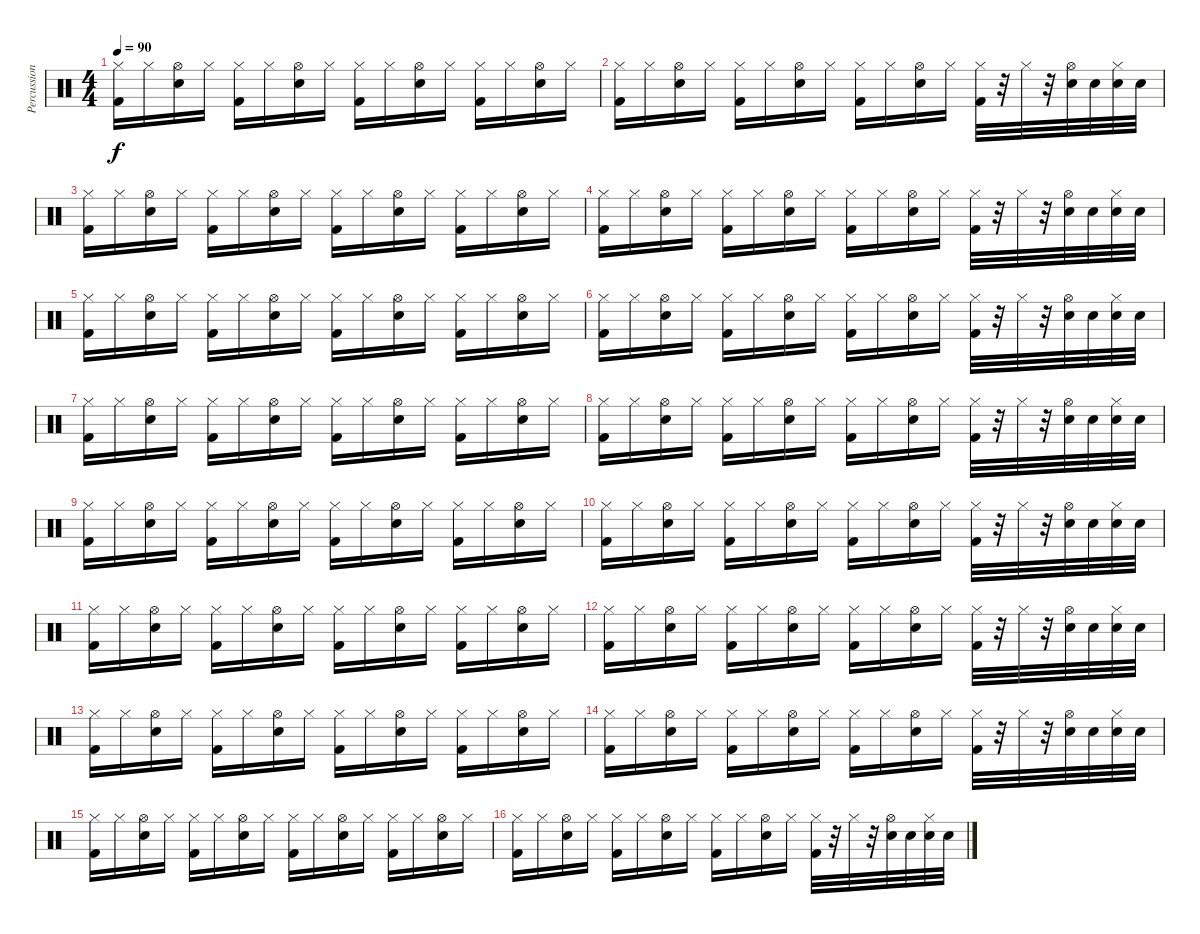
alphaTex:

\track ("Percussions" "Percussion") {instrument percussion}
\staff {score}
\articulation defaults
\ts (4 4)
\tempo 90
\clef neutral
\ks c
("Hi-Hat (closed)" "Kick (hit) 2").16{dy f} "Hi-Hat (closed)".16 ("Hi-Hat (open)" "Snare (hit) 2").16 "Hi-Hat (closed)".16 ("Hi-Hat (closed)" "Kick (hit) 2").16 "Hi-Hat (closed)".16 ("Hi-Hat (open)" "Snare (hit) 2").16 "Hi-Hat (closed)".16 ("Hi-Hat (closed)" "Kick (hit) 2").16 "Hi-Hat (closed)".16 ("Hi-Hat (open)" "Snare (hit) 2").16 "Hi-Hat (closed)".16 ("Hi-Hat (closed)" "Kick (hit) 2").16 "Hi-Hat (closed)".16 ("Hi-Hat (open)" "Snare (hit) 2").16 "Hi-Hat (closed)".16 |
("Hi-Hat (closed)" "Kick (hit) 2").16 "Hi-Hat (closed)".16 ("Hi-Hat (open)" "Snare (hit) 2").16 "Hi-Hat (closed)".16 ("Hi-Hat (closed)" "Kick (hit) 2").16 "Hi-Hat (closed)".16 ("Hi-Hat (open)" "Snare (hit) 2").16 "Hi-Hat (closed)".16 ("Hi-Hat (closed)" "Kick (hit) 2").16 "Hi-Hat (closed)".16 ("Hi-Hat (open)" "Snare (hit) 2").16 "Hi-Hat (closed)".16 ("Hi-Hat (closed)" "Kick (hit) 2").32 r.32 "Hi-Hat (closed)".32 r.32 ("Hi-Hat (open)" "Snare (hit) 2").32 "Snare (hit) 2".32 ("Hi-Hat (closed)" "Snare (hit) 2").32 "Snare (hit) 2".32 |
("Hi-Hat (closed)" "Kick (hit) 2").16 "Hi-Hat (closed)".16 ("Hi-Hat (open)" "Snare (hit) 2").16 "Hi-Hat (closed)".16 ("Hi-Hat (closed)" "Kick (hit) 2").16 "Hi-Hat (closed)".16 ("Hi-Hat (open)" "Snare (hit) 2").16 "Hi-Hat (closed)".16 ("Hi-Hat (closed)" "Kick (hit) 2").16 "Hi-Hat (closed)".16 ("Hi-Hat (open)" "Snare (hit) 2").16 "Hi-Hat (closed)".16 ("Hi-Hat (closed)" "Kick (hit) 2").16 "Hi-Hat (closed)".16 ("Hi-Hat (open)" "Snare (hit) 2").16 "Hi-Hat (closed)".16 |
("Hi-Hat (closed)" "Kick (hit) 2").16 "Hi-Hat (closed)".16 ("Hi-Hat (open)" "Snare (hit) 2").16 "Hi-Hat (closed)".16 ("Hi-Hat (closed)" "Kick (hit) 2").16 "Hi-Hat (closed)".16 ("Hi-Hat (open)" "Snare (hit) 2").16 "Hi-Hat (closed)".16 ("Hi-Hat (closed)" "Kick (hit) 2").16 "Hi-Hat (closed)".16 ("Hi-Hat (open)" "Snare (hit) 2").16 "Hi-Hat (closed)".16 ("Hi-Hat (closed)" "Kick (hit) 2").32 r.32 "Hi-Hat (closed)".32 r.32 ("Hi-Hat (open)" "Snare (hit) 2").32 "Snare (hit) 2".32 ("Hi-Hat (closed)" "Snare (hit) 2").32 "Snare (hit) 2".32 |
("Hi-Hat (closed)" "Kick (hit) 2").16 "Hi-Hat (closed)".16 ("Hi-Hat (open)" "Snare (hit) 2").16 "Hi-Hat (closed)".16 ("Hi-Hat (closed)" "Kick (hit) 2").16 "Hi-Hat (closed)".16 ("Hi-Hat (open)" "Snare (hit) 2").16 "Hi-Hat (closed)".16 ("Hi-Hat (closed)" "Kick (hit) 2").16 "Hi-Hat (closed)".16 ("Hi-Hat (open)" "Snare (hit) 2").16 "Hi-Hat (closed)".16 ("Hi-Hat (closed)" "Kick (hit) 2").16 "Hi-Hat (closed)".16 ("Hi-Hat (open)" "Snare (hit) 2").16 "Hi-Hat (closed)".16 |
("Hi-Hat (closed)" "Kick (hit) 2").16 "Hi-Hat (closed)".16 ("Hi-Hat (open)" "Snare (hit) 2").16 "Hi-Hat (closed)".16 ("Hi-Hat (closed)" "Kick (hit) 2").16 "Hi-Hat (closed)".16 ("Hi-Hat (open)" "Snare (hit) 2").16 "Hi-Hat (closed)".16 ("Hi-Hat (closed)" "Kick (hit) 2").16 "Hi-Hat (closed)".16 ("Hi-Hat (open)" "Snare (hit) 2").16 "Hi-Hat (closed)".16 ("Hi-Hat (closed)" "Kick (hit) 2").32 r.32 "Hi-Hat (closed)".32 r.32 ("Hi-Hat (open)" "Snare (hit) 2").32 "Snare (hit) 2".32 ("Hi-Hat (closed)" "Snare (hit) 2").32 "Snare (hit) 2".32 |
("Hi-Hat (closed)" "Kick (hit) 2").16 "Hi-Hat (closed)".16 ("Hi-Hat (open)" "Snare (hit) 2").16 "Hi-Hat (closed)".16 ("Hi-Hat (closed)" "Kick (hit) 2").16 "Hi-Hat (closed)".16 ("Hi-Hat (open)" "Snare (hit) 2").16 "Hi-Hat (closed)".16 ("Hi-Hat (closed)" "Kick (hit) 2").16 "Hi-Hat (closed)".16 ("Hi-Hat (open)" "Snare (hit) 2").16 "Hi-Hat (closed)".16 ("Hi-Hat (closed)" "Kick (hit) 2").16 "Hi-Hat (closed)".16 ("Hi-Hat (open)" "Snare (hit) 2").16 "Hi-Hat (closed)".16 |
("Hi-Hat (closed)" "Kick (hit) 2").16 "Hi-Hat (closed)".16 ("Hi-Hat (open)" "Snare (hit) 2").16 "Hi-Hat (closed)".16 ("Hi-Hat (closed)" "Kick (hit) 2").16 "Hi-Hat (closed)".16 ("Hi-Hat (open)" "Snare (hit) 2").16 "Hi-Hat (closed)".16 ("Hi-Hat (closed)" "Kick (hit) 2").16 "Hi-Hat (closed)".16 ("Hi-Hat (open)" "Snare (hit) 2").16 "Hi-Hat (closed)".16 ("Hi-Hat (closed)" "Kick (hit) 2").32 r.32 "Hi-Hat (closed)".32 r.32 ("Hi-Hat (open)" "Snare (hit) 2").32 "Snare (hit) 2".32 ("Hi-Hat (closed)" "Snare (hit) 2").32 "Snare (hit) 2".32 |
("Hi-Hat (closed)" "Kick (hit) 2").16 "Hi-Hat (closed)".16 ("Hi-Hat (open)" "Snare (hit) 2").16 "Hi-Hat (closed)".16 ("Hi-Hat (closed)" "Kick (hit) 2").16 "Hi-Hat (closed)".16 ("Hi-Hat (open)" "Snare (hit) 2").16 "Hi-Hat (closed)".16 ("Hi-Hat (closed)" "Kick (hit) 2").16 "Hi-Hat (closed)".16 ("Hi-Hat (open)" "Snare (hit) 2").16 "Hi-Hat (closed)".16 ("Hi-Hat (closed)" "Kick (hit) 2").16 "Hi-Hat (closed)".16 ("Hi-Hat (open)" "Snare (hit) 2").16 "Hi-Hat (closed)".16 |
("Hi-Hat (closed)" "Kick (hit) 2").16 "Hi-Hat (closed)".16 ("Hi-Hat (open)" "Snare (hit) 2").16 "Hi-Hat (closed)".16 ("Hi-Hat (closed)" "Kick (hit) 2").16 "Hi-Hat (closed)".16 ("Hi-Hat (open)" "Snare (hit) 2").16 "Hi-Hat (closed)".16 ("Hi-Hat (closed)" "Kick (hit) 2").16 "Hi-Hat (closed)".16 ("Hi-Hat (open)" "Snare (hit) 2").16 "Hi-Hat (closed)".16 ("Hi-Hat (closed)" "Kick (hit) 2").32 r.32 "Hi-Hat (closed)".32 r.32 ("Hi-Hat (open)" "Snare (hit) 2").32 "Snare (hit) 2".32 ("Hi-Hat (closed)" "Snare (hit) 2").32 "Snare (hit) 2".32 |
("Hi-Hat (closed)" "Kick (hit) 2").16 "Hi-Hat (closed)".16 ("Hi-Hat (open)" "Snare (hit) 2").16 "Hi-Hat (closed)".16 ("Hi-Hat (closed)" "Kick (hit) 2").16 "Hi-Hat (closed)".16 ("Hi-Hat (open)" "Snare (hit) 2").16 "Hi-Hat (closed)".16 ("Hi-Hat (closed)" "Kick (hit) 2").16 "Hi-Hat (closed)".16 ("Hi-Hat (open)" "Snare (hit) 2").16 "Hi-Hat (closed)".16 ("Hi-Hat (closed)" "Kick (hit) 2").16 "Hi-Hat (closed)".16 ("Hi-Hat (open)" "Snare (hit) 2").16 "Hi-Hat (closed)".16 |
("Hi-Hat (closed)" "Kick (hit) 2").16 "Hi-Hat (closed)".16 ("Hi-Hat (open)" "Snare (hit) 2").16 "Hi-Hat (closed)".16 ("Hi-Hat (closed)" "Kick (hit) 2").16 "Hi-Hat (closed)".16 ("Hi-Hat (open)" "Snare (hit) 2").16 "Hi-Hat (closed)".16 ("Hi-Hat (closed)" "Kick (hit) 2").16 "Hi-Hat (closed)".16 ("Hi-Hat (open)" "Snare (hit) 2").16 "Hi-Hat (closed)".16 ("Hi-Hat (closed)" "Kick (hit) 2").32 r.32 "Hi-Hat (closed)".32 r.32 ("Hi-Hat (open)" "Snare (hit) 2").32 "Snare (hit) 2".32 ("Hi-Hat (closed)" "Snare (hit) 2").32 "Snare (hit) 2".32 |
("Hi-Hat (closed)" "Kick (hit) 2").16 "Hi-Hat (closed)".16 ("Hi-Hat (open)" "Snare (hit) 2").16 "Hi-Hat (closed)".16 ("Hi-Hat (closed)" "Kick (hit) 2").16 "Hi-Hat (closed)".16 ("Hi-Hat (open)" "Snare (hit) 2").16 "Hi-Hat (closed)".16 ("Hi-Hat (closed)" "Kick (hit) 2").16 "Hi-Hat (closed)".16 ("Hi-Hat (open)" "Snare (hit) 2").16 "Hi-Hat (closed)".16 ("Hi-Hat (closed)" "Kick (hit) 2").16 "Hi-Hat (closed)".16 ("Hi-Hat (open)" "Snare (hit) 2").16 "Hi-Hat (closed)".16 |
("Hi-Hat (closed)" "Kick (hit) 2").16 "Hi-Hat (closed)".16 ("Hi-Hat (open)" "Snare (hit) 2").16 "Hi-Hat (closed)".16 ("Hi-Hat (closed)" "Kick (hit) 2").16 "Hi-Hat (closed)".16 ("Hi-Hat (open)" "Snare (hit) 2").16 "Hi-Hat (closed)".16 ("Hi-Hat (closed)" "Kick (hit) 2").16 "Hi-Hat (closed)".16 ("Hi-Hat (open)" "Snare (hit) 2").16 "Hi-Hat (closed)".16 ("Hi-Hat (closed)" "Kick (hit) 2").32 r.32 "Hi-Hat (closed)".32 r.32 ("Hi-Hat (open)" "Snare (hit) 2").32 "Snare (hit) 2".32 ("Hi-Hat (closed)" "Snare (hit) 2").32 "Snare (hit) 2".32 |
("Hi-Hat (closed)" "Kick (hit) 2").16 "Hi-Hat (closed)".16 ("Hi-Hat (open)" "Snare (hit) 2").16 "Hi-Hat (closed)".16 ("Hi-Hat (closed)" "Kick (hit) 2").16 "Hi-Hat (closed)".16 ("Hi-Hat (open)" "Snare (hit) 2").16 "Hi-Hat (closed)".16 ("Hi-Hat (closed)" "Kick (hit) 2").16 "Hi-Hat (closed)".16 ("Hi-Hat (open)" "Snare (hit) 2").16 "Hi-Hat (closed)".16 ("Hi-Hat (closed)" "Kick (hit) 2").16 "Hi-Hat (closed)".16 ("Hi-Hat (open)" "Snare (hit) 2").16 "Hi-Hat (closed)".16 |
("Hi-Hat (closed)" "Kick (hit) 2").16 "Hi-Hat (closed)".16 ("Hi-Hat (open)" "Snare (hit) 2").16 "Hi-Hat (closed)".16 ("Hi-Hat (closed)" "Kick (hit) 2").16 "Hi-Hat (closed)".16 ("Hi-Hat (open)" "Snare (hit) 2").16 "Hi-Hat (closed)".16 ("Hi-Hat (closed)" "Kick (hit) 2").16 "Hi-Hat (closed)".16 ("Hi-Hat (open)" "Snare (hit) 2").16 "Hi-Hat (closed)".16 ("Hi-Hat (closed)" "Kick (hit) 2").32 r.32 "Hi-Hat (closed)".32 r.32 ("Hi-Hat (open)" "Snare (hit) 2").32 "Snare (hit) 2".32 ("Hi-Hat (closed)" "Snare (hit) 2").32 "Snare (hit) 2".32
